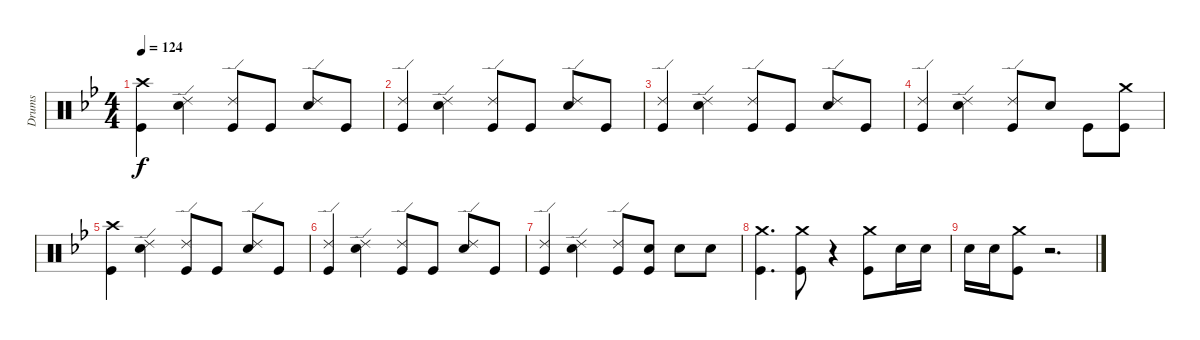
\track ("Drums" "Drums") {instrument percussion}
\staff {score}
\articulation defaults
\ts (4 4)
\tempo 124
\clef neutral
\ks gminor
("Crash high (hit)" "Kick (hit)").4{dy f} ("Ride (edge) 2" "Snare (hit) 2").4 ("Ride (edge) 2" "Kick (hit)").8 "Kick (hit)".8 ("Ride (edge) 2" "Snare (hit) 2").8 "Kick (hit)".8 |
("Ride (edge) 2" "Kick (hit)").4 ("Ride (edge) 2" "Snare (hit) 2").4 ("Ride (edge) 2" "Kick (hit)").8 "Kick (hit)".8 ("Ride (edge) 2" "Snare (hit) 2").8 "Kick (hit)".8 |
("Ride (edge) 2" "Kick (hit)").4 ("Ride (edge) 2" "Snare (hit) 2").4 ("Ride (edge) 2" "Kick (hit)").8 "Kick (hit)".8 ("Ride (edge) 2" "Snare (hit) 2").8 "Kick (hit)".8 |
("Ride (edge) 2" "Kick (hit)").4 ("Ride (edge) 2" "Snare (hit) 2").4 ("Ride (edge) 2" "Kick (hit)").8 "Snare (hit) 2".8 "Kick (hit)".8 ("Crash medium (hit)" "Kick (hit)").8 |
("Crash high (hit)" "Kick (hit)").4 ("Ride (edge) 2" "Snare (hit) 2").4 ("Ride (edge) 2" "Kick (hit)").8 "Kick (hit)".8 ("Ride (edge) 2" "Snare (hit) 2").8 "Kick (hit)".8 |
("Ride (edge) 2" "Kick (hit)").4 ("Ride (edge) 2" "Snare (hit) 2").4 ("Ride (edge) 2" "Kick (hit)").8 "Kick (hit)".8 ("Ride (edge) 2" "Snare (hit) 2").8 "Kick (hit)".8 |
("Ride (edge) 2" "Kick (hit)").4 ("Ride (edge) 2" "Snare (hit) 2").4 ("Ride (edge) 2" "Kick (hit)").8 ("Snare (hit) 2" "Kick (hit)").8 "Snare (hit) 2".8 "Snare (hit) 2".8 |
("Crash medium (hit)" "Kick (hit)").4{d} ("Crash medium (hit)" "Kick (hit)").8 r.4 ("Crash medium (hit)" "Kick (hit)").8 "Snare (hit) 2".16 "Snare (hit) 2".16 |
"Snare (hit) 2".16 "Snare (hit) 2".16 ("Crash medium (hit)" "Kick (hit)").8 r.2{d}
